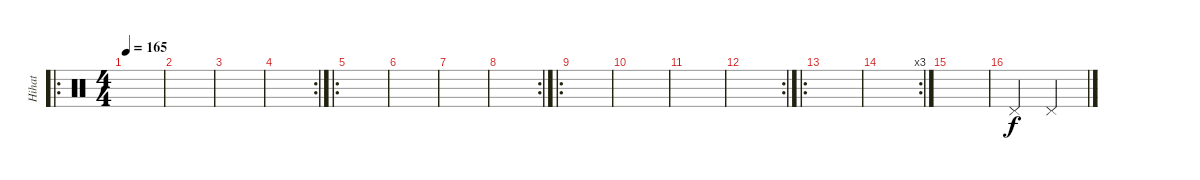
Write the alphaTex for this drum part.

\track ("Hihat" "Hihat") {instrument percussion}
\staff {score}
\articulation defaults
\ro
\ts (4 4)
\tempo 165
\clef neutral
\ks c
|
|
|
\rc 2
|
\ro
|
|
|
\rc 2
|
\ro
|
|
|
\rc 2
|
\ro
|
\rc 3
|
|
"Pedal Hi-Hat (hit)".4 "Pedal Hi-Hat (hit)".4
